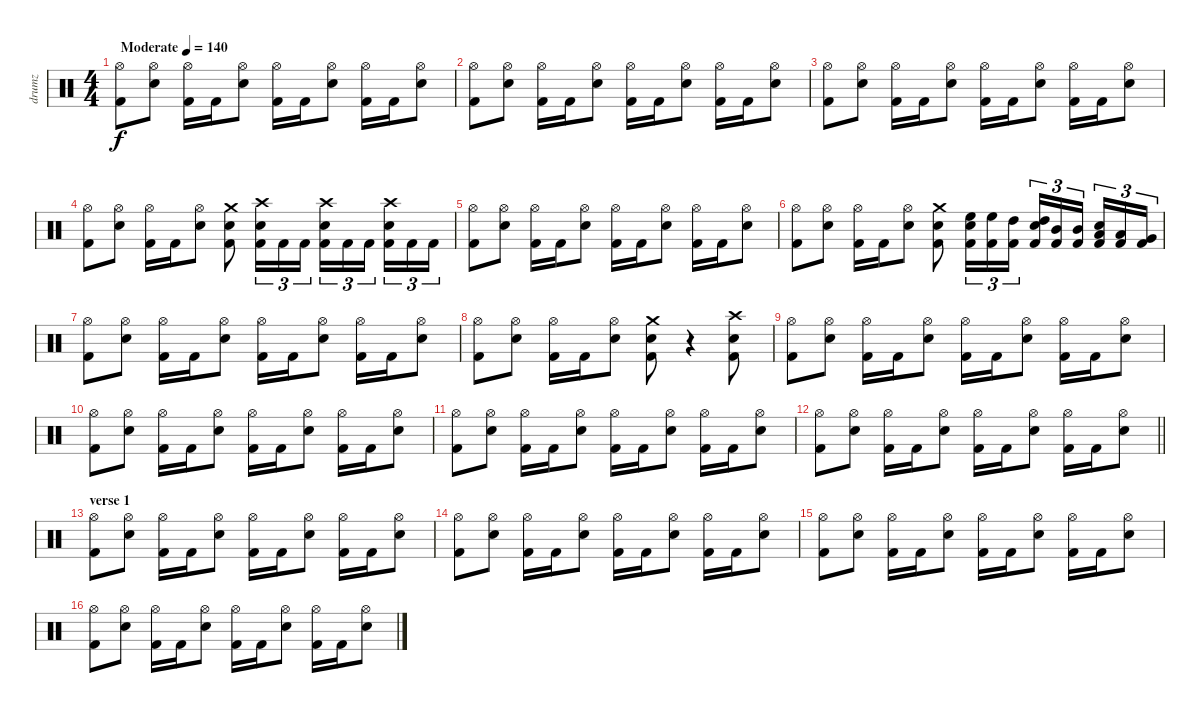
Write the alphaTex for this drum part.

\track ("drumz" "drumz") {instrument percussion}
\staff {score}
\articulation defaults
\ts (4 4)
\tempo (140 "Moderate")
\clef neutral
\ks c
("Hi-Hat (open)" "Kick (hit) 2").8{dy f} ("Hi-Hat (open)" "Electric Snare (hit)").8 ("Hi-Hat (open)" "Kick (hit) 2").16 "Kick (hit) 2".16 ("Hi-Hat (open)" "Electric Snare (hit)").8 ("Hi-Hat (open)" "Kick (hit) 2").16 "Kick (hit) 2".16 ("Hi-Hat (open)" "Electric Snare (hit)").8 ("Hi-Hat (open)" "Kick (hit) 2").16 "Kick (hit) 2".16 ("Hi-Hat (open)" "Electric Snare (hit)").8 |
("Hi-Hat (open)" "Kick (hit) 2").8 ("Hi-Hat (open)" "Electric Snare (hit)").8 ("Hi-Hat (open)" "Kick (hit) 2").16 "Kick (hit) 2".16 ("Hi-Hat (open)" "Electric Snare (hit)").8 ("Hi-Hat (open)" "Kick (hit) 2").16 "Kick (hit) 2".16 ("Hi-Hat (open)" "Electric Snare (hit)").8 ("Hi-Hat (open)" "Kick (hit) 2").16 "Kick (hit) 2".16 ("Hi-Hat (open)" "Electric Snare (hit)").8 |
("Hi-Hat (open)" "Kick (hit) 2").8 ("Hi-Hat (open)" "Electric Snare (hit)").8 ("Hi-Hat (open)" "Kick (hit) 2").16 "Kick (hit) 2".16 ("Hi-Hat (open)" "Electric Snare (hit)").8 ("Hi-Hat (open)" "Kick (hit) 2").16 "Kick (hit) 2".16 ("Hi-Hat (open)" "Electric Snare (hit)").8 ("Hi-Hat (open)" "Kick (hit) 2").16 "Kick (hit) 2".16 ("Hi-Hat (open)" "Electric Snare (hit)").8 |
("Hi-Hat (open)" "Kick (hit) 2").8 ("Hi-Hat (open)" "Electric Snare (hit)").8 ("Hi-Hat (open)" "Kick (hit) 2").16 "Kick (hit) 2".16 ("Hi-Hat (open)" "Electric Snare (hit)").8 ("Crash medium (hit)" "Electric Snare (hit)" "Kick (hit) 2").8 ("Crash high (hit)" "Electric Snare (hit)" "Kick (hit) 2").16{tu (3 2)} "Kick (hit) 2".16{tu (3 2)} "Kick (hit) 2".16{tu (3 2)} ("Crash high (hit)" "Electric Snare (hit)" "Kick (hit) 2").16{tu (3 2)} "Kick (hit) 2".16{tu (3 2)} "Kick (hit) 2".16{tu (3 2) beam splitsecondary} ("Crash high (hit)" "Electric Snare (hit)" "Kick (hit) 2").16{tu (3 2)} "Kick (hit) 2".16{tu (3 2)} "Kick (hit) 2".16{tu (3 2)} |
("Hi-Hat (open)" "Kick (hit) 2").8 ("Hi-Hat (open)" "Electric Snare (hit)").8 ("Hi-Hat (open)" "Kick (hit) 2").16 "Kick (hit) 2".16 ("Hi-Hat (open)" "Electric Snare (hit)").8 ("Hi-Hat (open)" "Kick (hit) 2").16 "Kick (hit) 2".16 ("Hi-Hat (open)" "Electric Snare (hit)").8 ("Hi-Hat (open)" "Kick (hit) 2").16 "Kick (hit) 2".16 ("Hi-Hat (open)" "Electric Snare (hit)").8 |
("Hi-Hat (open)" "Kick (hit) 2").8 ("Hi-Hat (open)" "Electric Snare (hit)").8 ("Hi-Hat (open)" "Kick (hit) 2").16 "Kick (hit) 2".16 ("Hi-Hat (open)" "Electric Snare (hit)").8 ("Crash medium (hit)" "Electric Snare (hit)" "Kick (hit) 2").8 ("High Floor Tom (hit)" "Electric Snare (hit)" "Kick (hit) 2").16{tu (3 2)} ("High Floor Tom (hit)" "Kick (hit) 2").16{tu (3 2)} ("High Tom (hit)" "Kick (hit) 2").16{tu (3 2)} ("High Tom (hit)" "Electric Snare (hit)" "Kick (hit) 2").16{tu (3 2)} ("Mid Tom (hit)" "Kick (hit) 2").16{tu (3 2)} ("Mid Tom (hit)" "Kick (hit) 2").16{tu (3 2) beam splitsecondary} ("Low Tom (hit)" "Electric Snare (hit)" "Kick (hit) 2").16{tu (3 2)} ("Low Tom (hit)" "Kick (hit) 2").16{tu (3 2)} ("Very Low Tom (hit)" "Kick (hit) 2").16{tu (3 2)} |
("Hi-Hat (open)" "Kick (hit) 2").8 ("Hi-Hat (open)" "Electric Snare (hit)").8 ("Hi-Hat (open)" "Kick (hit) 2").16 "Kick (hit) 2".16 ("Hi-Hat (open)" "Electric Snare (hit)").8 ("Hi-Hat (open)" "Kick (hit) 2").16 "Kick (hit) 2".16 ("Hi-Hat (open)" "Electric Snare (hit)").8 ("Hi-Hat (open)" "Kick (hit) 2").16 "Kick (hit) 2".16 ("Hi-Hat (open)" "Electric Snare (hit)").8 |
("Hi-Hat (open)" "Kick (hit) 2").8 ("Hi-Hat (open)" "Electric Snare (hit)").8 ("Hi-Hat (open)" "Kick (hit) 2").16 "Kick (hit) 2".16 ("Hi-Hat (open)" "Electric Snare (hit)").8 ("Crash medium (hit)" "Electric Snare (hit)" "Kick (hit) 2").8 r.4 ("Crash high (hit)" "Electric Snare (hit)" "Kick (hit) 2").8 |
("Hi-Hat (open)" "Kick (hit) 2").8 ("Hi-Hat (open)" "Electric Snare (hit)").8 ("Hi-Hat (open)" "Kick (hit) 2").16 "Kick (hit) 2".16 ("Hi-Hat (open)" "Electric Snare (hit)").8 ("Hi-Hat (open)" "Kick (hit) 2").16 "Kick (hit) 2".16 ("Hi-Hat (open)" "Electric Snare (hit)").8 ("Hi-Hat (open)" "Kick (hit) 2").16 "Kick (hit) 2".16 ("Hi-Hat (open)" "Electric Snare (hit)").8 |
("Hi-Hat (open)" "Kick (hit) 2").8 ("Hi-Hat (open)" "Electric Snare (hit)").8 ("Hi-Hat (open)" "Kick (hit) 2").16 "Kick (hit) 2".16 ("Hi-Hat (open)" "Electric Snare (hit)").8 ("Hi-Hat (open)" "Kick (hit) 2").16 "Kick (hit) 2".16 ("Hi-Hat (open)" "Electric Snare (hit)").8 ("Hi-Hat (open)" "Kick (hit) 2").16 "Kick (hit) 2".16 ("Hi-Hat (open)" "Electric Snare (hit)").8 |
("Hi-Hat (open)" "Kick (hit) 2").8 ("Hi-Hat (open)" "Electric Snare (hit)").8 ("Hi-Hat (open)" "Kick (hit) 2").16 "Kick (hit) 2".16 ("Hi-Hat (open)" "Electric Snare (hit)").8 ("Hi-Hat (open)" "Kick (hit) 2").16 "Kick (hit) 2".16 ("Hi-Hat (open)" "Electric Snare (hit)").8 ("Hi-Hat (open)" "Kick (hit) 2").16 "Kick (hit) 2".16 ("Hi-Hat (open)" "Electric Snare (hit)").8 |
\barLineRight lightlight
("Hi-Hat (open)" "Kick (hit) 2").8 ("Hi-Hat (open)" "Electric Snare (hit)").8 ("Hi-Hat (open)" "Kick (hit) 2").16 "Kick (hit) 2".16 ("Hi-Hat (open)" "Electric Snare (hit)").8 ("Hi-Hat (open)" "Kick (hit) 2").16 "Kick (hit) 2".16 ("Hi-Hat (open)" "Electric Snare (hit)").8 ("Hi-Hat (open)" "Kick (hit) 2").16 "Kick (hit) 2".16 ("Hi-Hat (open)" "Electric Snare (hit)").8 |
\section ("" "verse 1")
("Hi-Hat (open)" "Kick (hit) 2").8 ("Hi-Hat (open)" "Electric Snare (hit)").8 ("Hi-Hat (open)" "Kick (hit) 2").16 "Kick (hit) 2".16 ("Hi-Hat (open)" "Electric Snare (hit)").8 ("Hi-Hat (open)" "Kick (hit) 2").16 "Kick (hit) 2".16 ("Hi-Hat (open)" "Electric Snare (hit)").8 ("Hi-Hat (open)" "Kick (hit) 2").16 "Kick (hit) 2".16 ("Hi-Hat (open)" "Electric Snare (hit)").8 |
("Hi-Hat (open)" "Kick (hit) 2").8 ("Hi-Hat (open)" "Electric Snare (hit)").8 ("Hi-Hat (open)" "Kick (hit) 2").16 "Kick (hit) 2".16 ("Hi-Hat (open)" "Electric Snare (hit)").8 ("Hi-Hat (open)" "Kick (hit) 2").16 "Kick (hit) 2".16 ("Hi-Hat (open)" "Electric Snare (hit)").8 ("Hi-Hat (open)" "Kick (hit) 2").16 "Kick (hit) 2".16 ("Hi-Hat (open)" "Electric Snare (hit)").8 |
("Hi-Hat (open)" "Kick (hit) 2").8 ("Hi-Hat (open)" "Electric Snare (hit)").8 ("Hi-Hat (open)" "Kick (hit) 2").16 "Kick (hit) 2".16 ("Hi-Hat (open)" "Electric Snare (hit)").8 ("Hi-Hat (open)" "Kick (hit) 2").16 "Kick (hit) 2".16 ("Hi-Hat (open)" "Electric Snare (hit)").8 ("Hi-Hat (open)" "Kick (hit) 2").16 "Kick (hit) 2".16 ("Hi-Hat (open)" "Electric Snare (hit)").8 |
("Hi-Hat (open)" "Kick (hit) 2").8 ("Hi-Hat (open)" "Electric Snare (hit)").8 ("Hi-Hat (open)" "Kick (hit) 2").16 "Kick (hit) 2".16 ("Hi-Hat (open)" "Electric Snare (hit)").8 ("Hi-Hat (open)" "Kick (hit) 2").16 "Kick (hit) 2".16 ("Hi-Hat (open)" "Electric Snare (hit)").8 ("Hi-Hat (open)" "Kick (hit) 2").16 "Kick (hit) 2".16 ("Hi-Hat (open)" "Electric Snare (hit)").8
